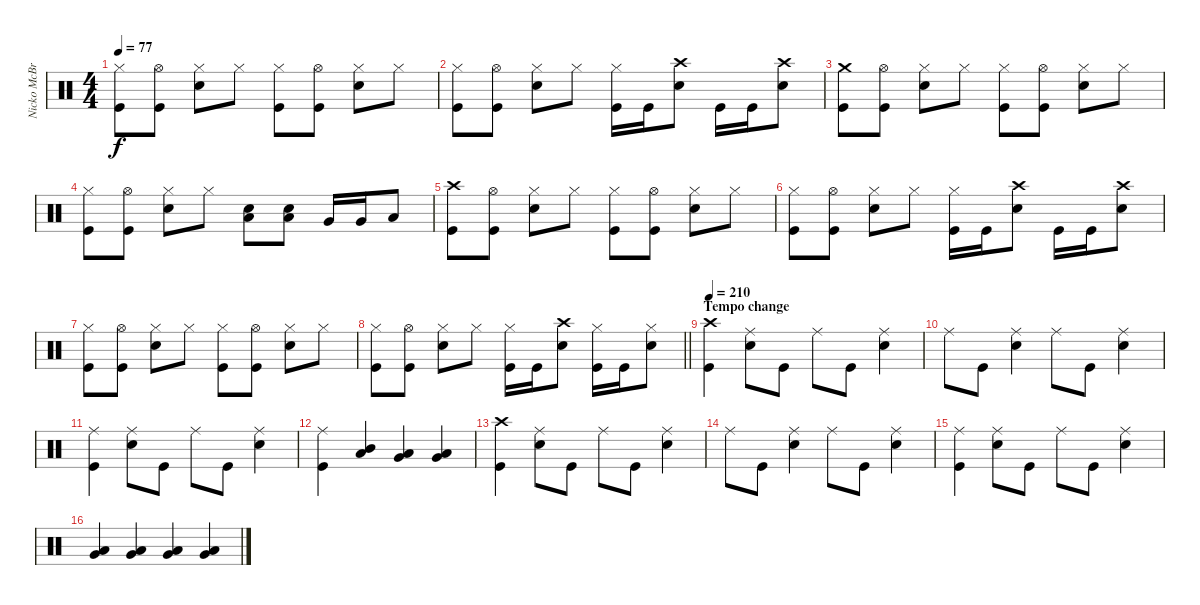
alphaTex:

\track ("Nicko McBrain" "Nicko McBr") {instrument percussion}
\staff {score}
\articulation defaults
\ts (4 4)
\tempo 77
\clef neutral
\ks c
("Hi-Hat (closed)" "Kick (hit)").8{dy f} ("Hi-Hat (open)" "Kick (hit)").8 ("Hi-Hat (closed)" "Snare (hit) 2").8 "Hi-Hat (closed)".8 ("Hi-Hat (closed)" "Kick (hit)").8 ("Hi-Hat (open)" "Kick (hit)").8 ("Hi-Hat (closed)" "Snare (hit) 2").8 "Hi-Hat (closed)".8 |
("Hi-Hat (closed)" "Kick (hit)").8 ("Hi-Hat (open)" "Kick (hit)").8 ("Hi-Hat (closed)" "Snare (hit) 2").8 "Hi-Hat (closed)".8 ("Hi-Hat (closed)" "Kick (hit)").16 "Kick (hit)".16 ("Crash high (hit)" "Snare (hit) 2").8 "Kick (hit)".16 "Kick (hit)".16 ("Crash high (hit)" "Snare (hit) 2").8 |
("Crash medium (hit)" "Kick (hit)").8 ("Hi-Hat (open)" "Kick (hit)").8 ("Hi-Hat (closed)" "Snare (hit) 2").8 "Hi-Hat (closed)".8 ("Hi-Hat (closed)" "Kick (hit)").8 ("Hi-Hat (open)" "Kick (hit)").8 ("Hi-Hat (closed)" "Snare (hit) 2").8 "Hi-Hat (closed)".8 |
("Hi-Hat (closed)" "Kick (hit)").8 ("Hi-Hat (open)" "Kick (hit)").8 ("Hi-Hat (closed)" "Snare (hit) 2").8 "Hi-Hat (closed)".8 ("Low Floor Tom (hit)" "Snare (hit) 2").8 ("Low Floor Tom (hit)" "Snare (hit) 2").8 "Very Low Tom (hit)".16 "Very Low Tom (hit)".16 "Low Floor Tom (hit)".8 |
("Crash high (hit)" "Kick (hit)").8 ("Hi-Hat (open)" "Kick (hit)").8 ("Hi-Hat (closed)" "Snare (hit) 2").8 "Hi-Hat (closed)".8 ("Hi-Hat (closed)" "Kick (hit)").8 ("Hi-Hat (open)" "Kick (hit)").8 ("Hi-Hat (closed)" "Snare (hit) 2").8 "Hi-Hat (closed)".8 |
("Hi-Hat (closed)" "Kick (hit)").8 ("Hi-Hat (open)" "Kick (hit)").8 ("Hi-Hat (closed)" "Snare (hit) 2").8 "Hi-Hat (closed)".8 ("Hi-Hat (closed)" "Kick (hit)").16 "Kick (hit)".16 ("Crash high (hit)" "Snare (hit) 2").8 "Kick (hit)".16 "Kick (hit)".16 ("Crash high (hit)" "Snare (hit) 2").8 |
("Hi-Hat (closed)" "Kick (hit)").8 ("Hi-Hat (open)" "Kick (hit)").8 ("Hi-Hat (closed)" "Snare (hit) 2").8 "Hi-Hat (closed)".8 ("Hi-Hat (closed)" "Kick (hit)").8 ("Hi-Hat (open)" "Kick (hit)").8 ("Hi-Hat (closed)" "Snare (hit) 2").8 "Hi-Hat (closed)".8 |
\barLineRight lightlight
("Hi-Hat (closed)" "Kick (hit)").8 ("Hi-Hat (open)" "Kick (hit)").8 ("Hi-Hat (closed)" "Snare (hit) 2").8 "Hi-Hat (closed)".8 ("Hi-Hat (closed)" "Kick (hit)").16 "Kick (hit)".16 ("Crash high (hit)" "Snare (hit) 2").8 ("Hi-Hat (closed)" "Kick (hit)").16 "Kick (hit)".16 ("Hi-Hat (closed)" "Snare (hit) 2").8 |
\section ("" "Tempo change")
\tempo 210
("Crash high (hit)" "Kick (hit)").4 ("Ride (middle)" "Snare (hit) 2").8 "Kick (hit)".8 "Ride (middle)".8 "Kick (hit)".8 ("Ride (middle)" "Snare (hit) 2").4 |
"Ride (middle)".8 "Kick (hit)".8 ("Ride (middle)" "Snare (hit) 2").4 "Ride (middle)".8 "Kick (hit)".8 ("Ride (middle)" "Snare (hit) 2").4 |
("Ride (middle)" "Kick (hit)").4 ("Ride (middle)" "Snare (hit) 2").8 "Kick (hit)".8 "Ride (middle)".8 "Kick (hit)".8 ("Ride (middle)" "Snare (hit) 2").4 |
("Ride (middle)" "Kick (hit)").4 ("Mid Tom (hit)" "Low Tom (hit)").4 ("Low Tom (hit)" "Very Low Tom (hit)").4 ("Very Low Tom (hit)" "Low Floor Tom (hit)").4 |
("Crash high (hit)" "Kick (hit)").4 ("Ride (middle)" "Snare (hit) 2").8 "Kick (hit)".8 "Ride (middle)".8 "Kick (hit)".8 ("Ride (middle)" "Snare (hit) 2").4 |
"Ride (middle)".8 "Kick (hit)".8 ("Ride (middle)" "Snare (hit) 2").4 "Ride (middle)".8 "Kick (hit)".8 ("Ride (middle)" "Snare (hit) 2").4 |
("Ride (middle)" "Kick (hit)").4 ("Ride (middle)" "Snare (hit) 2").8 "Kick (hit)".8 "Ride (middle)".8 "Kick (hit)".8 ("Ride (middle)" "Snare (hit) 2").4 |
("Low Tom (hit)" "Very Low Tom (hit)").4 ("Low Tom (hit)" "Very Low Tom (hit)").4 ("Very Low Tom (hit)" "Low Floor Tom (hit)").4 ("Very Low Tom (hit)" "Low Floor Tom (hit)").4
